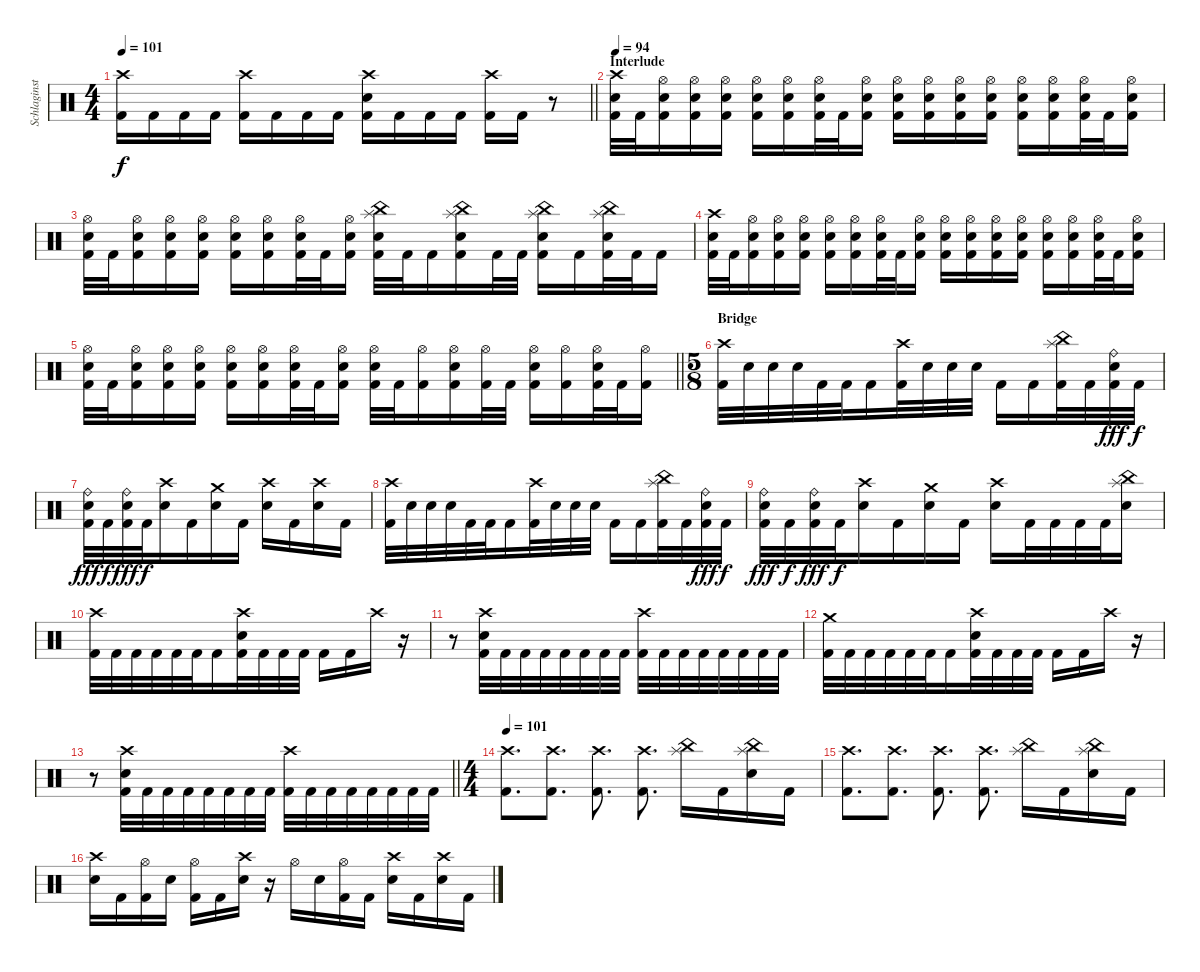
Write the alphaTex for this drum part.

\track ("Schlaginstrumente - Auswahl" "Schlaginst") {instrument percussion}
\staff {score}
\articulation defaults
\ts (4 4)
\tempo 101
\clef neutral
\barLineRight lightlight
\ks c
("Crash high (hit)" "Kick (hit) 2").16{dy f} "Kick (hit) 2".16 "Kick (hit) 2".16 "Kick (hit) 2".16 ("Crash high (hit)" "Kick (hit) 2").16 "Kick (hit) 2".16 "Kick (hit) 2".16 "Kick (hit) 2".16 ("Crash high (hit)" "Snare (hit) 2" "Kick (hit) 2").16 "Kick (hit) 2".16 "Kick (hit) 2".16 "Kick (hit) 2".16 ("Crash high (hit)" "Kick (hit) 2").16 "Kick (hit) 2".16 r.8 |
\section ("" "Interlude")
\tempo 94
("Crash high (hit)" "Snare (hit) 2" "Kick (hit) 2").32 "Kick (hit) 2".32 ("Hi-Hat (open)" "Snare (hit) 2" "Kick (hit) 2").16 ("Hi-Hat (open)" "Snare (hit) 2" "Kick (hit) 2").16 ("Hi-Hat (open)" "Snare (hit) 2" "Kick (hit) 2").16 ("Hi-Hat (open)" "Snare (hit) 2" "Kick (hit) 2").16 ("Hi-Hat (open)" "Snare (hit) 2" "Kick (hit) 2").16 ("Hi-Hat (open)" "Snare (hit) 2" "Kick (hit) 2").32 "Kick (hit) 2".32 ("Hi-Hat (open)" "Snare (hit) 2" "Kick (hit) 2").16 ("Hi-Hat (open)" "Snare (hit) 2" "Kick (hit) 2").16 ("Hi-Hat (open)" "Snare (hit) 2" "Kick (hit) 2").16 ("Hi-Hat (open)" "Snare (hit) 2" "Kick (hit) 2").16 ("Hi-Hat (open)" "Snare (hit) 2" "Kick (hit) 2").16 ("Hi-Hat (open)" "Snare (hit) 2" "Kick (hit) 2").16 ("Hi-Hat (open)" "Snare (hit) 2" "Kick (hit) 2").16 ("Hi-Hat (open)" "Snare (hit) 2" "Kick (hit) 2").32 "Kick (hit) 2".32 ("Hi-Hat (open)" "Snare (hit) 2" "Kick (hit) 2").16 |
("Hi-Hat (open)" "Snare (hit) 2" "Kick (hit) 2").32 "Kick (hit) 2".32 ("Hi-Hat (open)" "Snare (hit) 2" "Kick (hit) 2").16 ("Hi-Hat (open)" "Snare (hit) 2" "Kick (hit) 2").16 ("Hi-Hat (open)" "Snare (hit) 2" "Kick (hit) 2").16 ("Hi-Hat (open)" "Snare (hit) 2" "Kick (hit) 2").16 ("Hi-Hat (open)" "Snare (hit) 2" "Kick (hit) 2").16 ("Hi-Hat (open)" "Snare (hit) 2" "Kick (hit) 2").32 "Kick (hit) 2".32 ("Hi-Hat (open)" "Snare (hit) 2" "Kick (hit) 2").16 ("China (hit)" "Splash (hit)" "Snare (hit) 2" "Kick (hit) 2").32 "Kick (hit) 2".32 "Kick (hit) 2".16 ("China (hit)" "Splash (hit)" "Snare (hit) 2" "Kick (hit) 2").16 "Kick (hit) 2".32 "Kick (hit) 2".32 ("China (hit)" "Splash (hit)" "Snare (hit) 2" "Kick (hit) 2").16 "Kick (hit) 2".16 ("China (hit)" "Splash (hit)" "Snare (hit) 2" "Kick (hit) 2").32 "Kick (hit) 2".32 "Kick (hit) 2".16 |
("Crash high (hit)" "Snare (hit) 2" "Kick (hit) 2").32 "Kick (hit) 2".32 ("Hi-Hat (open)" "Snare (hit) 2" "Kick (hit) 2").16 ("Hi-Hat (open)" "Snare (hit) 2" "Kick (hit) 2").16 ("Hi-Hat (open)" "Snare (hit) 2" "Kick (hit) 2").16 ("Hi-Hat (open)" "Snare (hit) 2" "Kick (hit) 2").16 ("Hi-Hat (open)" "Snare (hit) 2" "Kick (hit) 2").16 ("Hi-Hat (open)" "Snare (hit) 2" "Kick (hit) 2").32 "Kick (hit) 2".32 ("Hi-Hat (open)" "Snare (hit) 2" "Kick (hit) 2").16 ("Hi-Hat (open)" "Snare (hit) 2" "Kick (hit) 2").16 ("Hi-Hat (open)" "Snare (hit) 2" "Kick (hit) 2").16 ("Hi-Hat (open)" "Snare (hit) 2" "Kick (hit) 2").16 ("Hi-Hat (open)" "Snare (hit) 2" "Kick (hit) 2").16 ("Hi-Hat (open)" "Snare (hit) 2" "Kick (hit) 2").16 ("Hi-Hat (open)" "Snare (hit) 2" "Kick (hit) 2").16 ("Hi-Hat (open)" "Snare (hit) 2" "Kick (hit) 2").32 "Kick (hit) 2".32 ("Hi-Hat (open)" "Snare (hit) 2" "Kick (hit) 2").16 |
\barLineRight lightlight
("Hi-Hat (open)" "Snare (hit) 2" "Kick (hit) 2").32 "Kick (hit) 2".32 ("Hi-Hat (open)" "Snare (hit) 2" "Kick (hit) 2").16 ("Hi-Hat (open)" "Snare (hit) 2" "Kick (hit) 2").16 ("Hi-Hat (open)" "Snare (hit) 2" "Kick (hit) 2").16 ("Hi-Hat (open)" "Snare (hit) 2" "Kick (hit) 2").16 ("Hi-Hat (open)" "Snare (hit) 2" "Kick (hit) 2").16 ("Hi-Hat (open)" "Snare (hit) 2" "Kick (hit) 2").32 "Kick (hit) 2".32 ("Hi-Hat (open)" "Snare (hit) 2" "Kick (hit) 2").16 ("Hi-Hat (open)" "Snare (hit) 2" "Kick (hit) 2").32 "Kick (hit) 2".32 ("Hi-Hat (open)" "Kick (hit) 2").16 ("Hi-Hat (open)" "Snare (hit) 2" "Kick (hit) 2").16 ("Hi-Hat (open)" "Kick (hit) 2").32 "Kick (hit) 2".32 ("Hi-Hat (open)" "Snare (hit) 2" "Kick (hit) 2").16 ("Hi-Hat (open)" "Kick (hit) 2").16 ("Hi-Hat (open)" "Snare (hit) 2" "Kick (hit) 2").32 "Kick (hit) 2".32 ("Hi-Hat (open)" "Kick (hit) 2").16 |
\ts (5 8)
\section ("" "Bridge")
("Crash high (hit)" "Kick (hit) 2").32 "Snare (hit) 2".32 "Snare (hit) 2".32 "Snare (hit) 2".32 "Kick (hit) 2".32 "Kick (hit) 2".32 "Kick (hit) 2".16 ("Crash high (hit)" "Kick (hit) 2").32 "Snare (hit) 2".32 "Snare (hit) 2".32 "Snare (hit) 2".32 "Kick (hit) 2".16 "Kick (hit) 2".16 ("China (hit)" "Splash (hit)" "Kick (hit) 2").32 "Kick (hit) 2".32 ("Ride (bell)" "Snare (hit) 2" "Kick (hit) 2").32{dy fff} "Kick (hit) 2".32{dy f} |
("Ride (bell)" "Snare (hit) 2" "Kick (hit) 2").32{dy fff} "Kick (hit) 2".32{dy f} ("Ride (bell)" "Snare (hit) 2" "Kick (hit) 2").32{dy fff} "Kick (hit) 2".32{dy f} ("Crash high (hit)" "Snare (hit) 2").16 "Kick (hit) 2".16 ("Crash medium (hit)" "Snare (hit) 2").16 "Kick (hit) 2".16 ("Crash high (hit)" "Snare (hit) 2").16 "Kick (hit) 2".16 ("Crash high (hit)" "Snare (hit) 2").16 "Kick (hit) 2".16 |
("Crash high (hit)" "Kick (hit) 2").32 "Snare (hit) 2".32 "Snare (hit) 2".32 "Snare (hit) 2".32 "Kick (hit) 2".32 "Kick (hit) 2".32 "Kick (hit) 2".16 ("Crash high (hit)" "Kick (hit) 2").32 "Snare (hit) 2".32 "Snare (hit) 2".32 "Snare (hit) 2".32 "Kick (hit) 2".16 "Kick (hit) 2".16 ("China (hit)" "Splash (hit)" "Kick (hit) 2").32 "Kick (hit) 2".32 ("Ride (bell)" "Snare (hit) 2" "Kick (hit) 2").32{dy fff} "Kick (hit) 2".32{dy f} |
("Ride (bell)" "Snare (hit) 2" "Kick (hit) 2").32{dy fff} "Kick (hit) 2".32{dy f} ("Ride (bell)" "Snare (hit) 2" "Kick (hit) 2").32{dy fff} "Kick (hit) 2".32{dy f} ("Crash high (hit)" "Snare (hit) 2").16 "Kick (hit) 2".16 ("Crash medium (hit)" "Snare (hit) 2").16 "Kick (hit) 2".16 ("Crash high (hit)" "Snare (hit) 2").16 "Kick (hit) 2".32 "Kick (hit) 2".32 "Kick (hit) 2".32 "Kick (hit) 2".32 ("China (hit)" "Splash (hit)" "Snare (hit) 2").16 |
("Crash high (hit)" "Kick (hit) 2").32 "Kick (hit) 2".32 "Kick (hit) 2".32 "Kick (hit) 2".32 "Kick (hit) 2".32 "Kick (hit) 2".32 "Kick (hit) 2".16 ("Crash high (hit)" "Snare (hit) 2" "Kick (hit) 2").32 "Kick (hit) 2".32 "Kick (hit) 2".32 "Kick (hit) 2".32 "Kick (hit) 2".16 "Kick (hit) 2".16 "Crash high (hit)".16 r.16 |
r.8 ("Crash high (hit)" "Snare (hit) 2" "Kick (hit) 2").32 "Kick (hit) 2".32 "Kick (hit) 2".32 "Kick (hit) 2".32 "Kick (hit) 2".32 "Kick (hit) 2".32 "Kick (hit) 2".32 "Kick (hit) 2".32 ("Crash high (hit)" "Kick (hit) 2").32 "Kick (hit) 2".32 "Kick (hit) 2".32 "Kick (hit) 2".32 "Kick (hit) 2".32 "Kick (hit) 2".32 "Kick (hit) 2".32 "Kick (hit) 2".32 |
("Crash medium (hit)" "Kick (hit) 2").32 "Kick (hit) 2".32 "Kick (hit) 2".32 "Kick (hit) 2".32 "Kick (hit) 2".32 "Kick (hit) 2".32 "Kick (hit) 2".16 ("Crash high (hit)" "Snare (hit) 2" "Kick (hit) 2").32 "Kick (hit) 2".32 "Kick (hit) 2".32 "Kick (hit) 2".32 "Kick (hit) 2".16 "Kick (hit) 2".16 "Crash high (hit)".16 r.16 |
\barLineRight lightlight
r.8 ("Crash high (hit)" "Snare (hit) 2" "Kick (hit) 2").32 "Kick (hit) 2".32 "Kick (hit) 2".32 "Kick (hit) 2".32 "Kick (hit) 2".32 "Kick (hit) 2".32 "Kick (hit) 2".32 "Kick (hit) 2".32 ("Crash high (hit)" "Kick (hit) 2").32 "Kick (hit) 2".32 "Kick (hit) 2".32 "Kick (hit) 2".32 "Kick (hit) 2".32 "Kick (hit) 2".32 "Kick (hit) 2".32 "Kick (hit) 2".32 |
\ts (4 4)
\tempo 101
("Crash high (hit)" "Kick (hit) 2").8{d} ("Crash high (hit)" "Kick (hit) 2").8{d} ("Crash high (hit)" "Kick (hit) 2").8{d} ("Crash high (hit)" "Kick (hit) 2").8{d} ("China (hit)" "Splash (hit)").16 "Kick (hit) 2".16 ("China (hit)" "Splash (hit)" "Snare (hit) 2").16 "Kick (hit) 2".16 |
("Crash high (hit)" "Kick (hit) 2").8{d} ("Crash high (hit)" "Kick (hit) 2").8{d} ("Crash high (hit)" "Kick (hit) 2").8{d} ("Crash high (hit)" "Kick (hit) 2").8{d} ("China (hit)" "Splash (hit)").16 "Kick (hit) 2".16 ("China (hit)" "Splash (hit)" "Snare (hit) 2").16 "Kick (hit) 2".16 |
("Crash high (hit)" "Snare (hit) 2").16 "Kick (hit) 2".16 ("Hi-Hat (open)" "Kick (hit) 2").16 "Snare (hit) 2".16 ("Hi-Hat (open)" "Kick (hit) 2").16 "Kick (hit) 2".16 ("Crash high (hit)" "Snare (hit) 2").16 r.16 "Hi-Hat (open)".16 "Snare (hit) 2".16 ("Hi-Hat (open)" "Kick (hit) 2").16 "Kick (hit) 2".16 ("Crash high (hit)" "Snare (hit) 2").16 "Kick (hit) 2".16 ("Crash high (hit)" "Snare (hit) 2").16 "Kick (hit) 2".16
